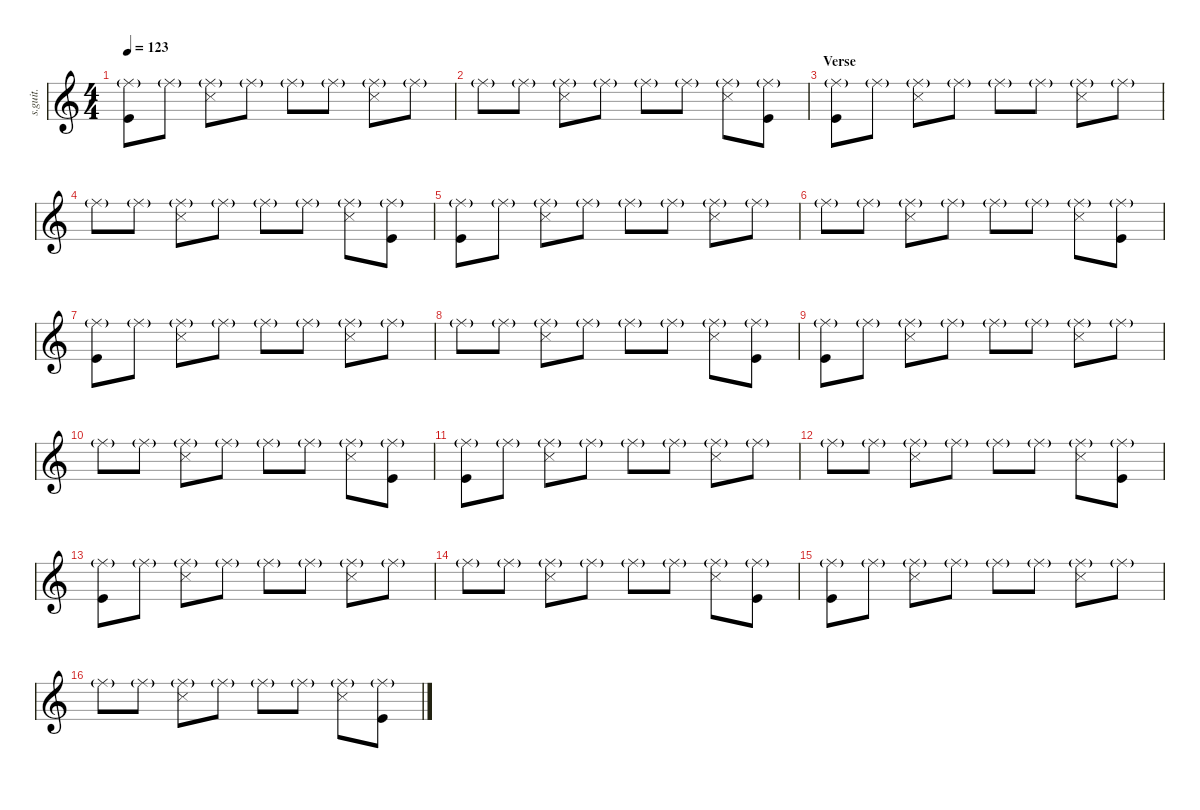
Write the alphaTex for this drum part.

\defaultSystemsLayout 4
\hideDynamics
\bracketExtendMode nobrackets
\track ("Dave Grohl" "s.guit.") {instrument percussion}
\staff {score}
\articulation defaults
\ts (4 4)
\tempo 123
\clef g2
\ks c
("Ride (middle)"{g} "Kick (hit)").8{lyrics (0 "") lyrics (1 "") lyrics (2 "") lyrics (3 "") lyrics (4 "") dy f} "Ride (middle)"{g}.8{lyrics (0 "") lyrics (1 "") lyrics (2 "") lyrics (3 "") lyrics (4 "") dy fff} ("Ride (middle)"{g} "Snare (side stick) 3").8{lyrics (0 "") lyrics (1 "") lyrics (2 "") lyrics (3 "") lyrics (4 "") dy f} "Ride (middle)"{g}.8{lyrics (0 "") lyrics (1 "") lyrics (2 "") lyrics (3 "") lyrics (4 "") dy fff} "Ride (middle)"{g}.8{lyrics (0 "") lyrics (1 "") lyrics (2 "") lyrics (3 "") lyrics (4 "")} "Ride (middle)"{g}.8{lyrics (0 "") lyrics (1 "") lyrics (2 "") lyrics (3 "") lyrics (4 "")} ("Ride (middle)"{g} "Snare (side stick) 3").8{lyrics (0 "") lyrics (1 "") lyrics (2 "") lyrics (3 "") lyrics (4 "") dy f} "Ride (middle)"{g}.8{lyrics (0 "") lyrics (1 "") lyrics (2 "") lyrics (3 "") lyrics (4 "") dy fff} |
"Ride (middle)"{g}.8{lyrics (0 "") lyrics (1 "") lyrics (2 "") lyrics (3 "") lyrics (4 "")} "Ride (middle)"{g}.8{lyrics (0 "") lyrics (1 "") lyrics (2 "") lyrics (3 "") lyrics (4 "")} ("Ride (middle)"{g} "Snare (side stick) 3").8{lyrics (0 "") lyrics (1 "") lyrics (2 "") lyrics (3 "") lyrics (4 "") dy f} "Ride (middle)"{g}.8{lyrics (0 "") lyrics (1 "") lyrics (2 "") lyrics (3 "") lyrics (4 "") dy fff} "Ride (middle)"{g}.8{lyrics (0 "") lyrics (1 "") lyrics (2 "") lyrics (3 "") lyrics (4 "")} "Ride (middle)"{g}.8{lyrics (0 "") lyrics (1 "") lyrics (2 "") lyrics (3 "") lyrics (4 "")} ("Ride (middle)"{g} "Snare (side stick) 3").8{lyrics (0 "") lyrics (1 "") lyrics (2 "") lyrics (3 "") lyrics (4 "") dy f} ("Ride (middle)"{g} "Kick (hit)").8{lyrics (0 "") lyrics (1 "") lyrics (2 "") lyrics (3 "") lyrics (4 "")} |
\section ("" "Verse")
("Ride (middle)"{g} "Kick (hit)").8{lyrics (0 "") lyrics (1 "") lyrics (2 "") lyrics (3 "") lyrics (4 "")} "Ride (middle)"{g}.8{lyrics (0 "") lyrics (1 "") lyrics (2 "") lyrics (3 "") lyrics (4 "") dy fff} ("Ride (middle)"{g} "Snare (side stick) 3").8{lyrics (0 "") lyrics (1 "") lyrics (2 "") lyrics (3 "") lyrics (4 "") dy f} "Ride (middle)"{g}.8{lyrics (0 "") lyrics (1 "") lyrics (2 "") lyrics (3 "") lyrics (4 "") dy fff} "Ride (middle)"{g}.8{lyrics (0 "") lyrics (1 "") lyrics (2 "") lyrics (3 "") lyrics (4 "")} "Ride (middle)"{g}.8{lyrics (0 "") lyrics (1 "") lyrics (2 "") lyrics (3 "") lyrics (4 "")} ("Ride (middle)"{g} "Snare (side stick) 3").8{lyrics (0 "") lyrics (1 "") lyrics (2 "") lyrics (3 "") lyrics (4 "") dy f} "Ride (middle)"{g}.8{lyrics (0 "") lyrics (1 "") lyrics (2 "") lyrics (3 "") lyrics (4 "") dy fff} |
"Ride (middle)"{g}.8{lyrics (0 "") lyrics (1 "") lyrics (2 "") lyrics (3 "") lyrics (4 "")} "Ride (middle)"{g}.8{lyrics (0 "") lyrics (1 "") lyrics (2 "") lyrics (3 "") lyrics (4 "")} ("Ride (middle)"{g} "Snare (side stick) 3").8{lyrics (0 "") lyrics (1 "") lyrics (2 "") lyrics (3 "") lyrics (4 "") dy f} "Ride (middle)"{g}.8{lyrics (0 "") lyrics (1 "") lyrics (2 "") lyrics (3 "") lyrics (4 "") dy fff} "Ride (middle)"{g}.8{lyrics (0 "") lyrics (1 "") lyrics (2 "") lyrics (3 "") lyrics (4 "")} "Ride (middle)"{g}.8{lyrics (0 "") lyrics (1 "") lyrics (2 "") lyrics (3 "") lyrics (4 "")} ("Ride (middle)"{g} "Snare (side stick) 3").8{lyrics (0 "") lyrics (1 "") lyrics (2 "") lyrics (3 "") lyrics (4 "") dy f} ("Ride (middle)"{g} "Kick (hit)").8{lyrics (0 "") lyrics (1 "") lyrics (2 "") lyrics (3 "") lyrics (4 "")} |
("Ride (middle)"{g} "Kick (hit)").8{lyrics (0 "") lyrics (1 "") lyrics (2 "") lyrics (3 "") lyrics (4 "")} "Ride (middle)"{g}.8{lyrics (0 "") lyrics (1 "") lyrics (2 "") lyrics (3 "") lyrics (4 "") dy fff} ("Ride (middle)"{g} "Snare (side stick) 3").8{lyrics (0 "") lyrics (1 "") lyrics (2 "") lyrics (3 "") lyrics (4 "") dy f} "Ride (middle)"{g}.8{lyrics (0 "") lyrics (1 "") lyrics (2 "") lyrics (3 "") lyrics (4 "") dy fff} "Ride (middle)"{g}.8{lyrics (0 "") lyrics (1 "") lyrics (2 "") lyrics (3 "") lyrics (4 "")} "Ride (middle)"{g}.8{lyrics (0 "") lyrics (1 "") lyrics (2 "") lyrics (3 "") lyrics (4 "")} ("Ride (middle)"{g} "Snare (side stick) 3").8{lyrics (0 "") lyrics (1 "") lyrics (2 "") lyrics (3 "") lyrics (4 "") dy f} "Ride (middle)"{g}.8{lyrics (0 "") lyrics (1 "") lyrics (2 "") lyrics (3 "") lyrics (4 "") dy fff} |
"Ride (middle)"{g}.8{lyrics (0 "") lyrics (1 "") lyrics (2 "") lyrics (3 "") lyrics (4 "")} "Ride (middle)"{g}.8{lyrics (0 "") lyrics (1 "") lyrics (2 "") lyrics (3 "") lyrics (4 "")} ("Ride (middle)"{g} "Snare (side stick) 3").8{lyrics (0 "") lyrics (1 "") lyrics (2 "") lyrics (3 "") lyrics (4 "") dy f} "Ride (middle)"{g}.8{lyrics (0 "") lyrics (1 "") lyrics (2 "") lyrics (3 "") lyrics (4 "") dy fff} "Ride (middle)"{g}.8{lyrics (0 "") lyrics (1 "") lyrics (2 "") lyrics (3 "") lyrics (4 "")} "Ride (middle)"{g}.8{lyrics (0 "") lyrics (1 "") lyrics (2 "") lyrics (3 "") lyrics (4 "")} ("Ride (middle)"{g} "Snare (side stick) 3").8{lyrics (0 "") lyrics (1 "") lyrics (2 "") lyrics (3 "") lyrics (4 "") dy f} ("Ride (middle)"{g} "Kick (hit)").8{lyrics (0 "") lyrics (1 "") lyrics (2 "") lyrics (3 "") lyrics (4 "")} |
("Ride (middle)"{g} "Kick (hit)").8{lyrics (0 "") lyrics (1 "") lyrics (2 "") lyrics (3 "") lyrics (4 "")} "Ride (middle)"{g}.8{lyrics (0 "") lyrics (1 "") lyrics (2 "") lyrics (3 "") lyrics (4 "") dy fff} ("Ride (middle)"{g} "Snare (side stick) 3").8{lyrics (0 "") lyrics (1 "") lyrics (2 "") lyrics (3 "") lyrics (4 "") dy f} "Ride (middle)"{g}.8{lyrics (0 "") lyrics (1 "") lyrics (2 "") lyrics (3 "") lyrics (4 "") dy fff} "Ride (middle)"{g}.8{lyrics (0 "") lyrics (1 "") lyrics (2 "") lyrics (3 "") lyrics (4 "")} "Ride (middle)"{g}.8{lyrics (0 "") lyrics (1 "") lyrics (2 "") lyrics (3 "") lyrics (4 "")} ("Ride (middle)"{g} "Snare (side stick) 3").8{lyrics (0 "") lyrics (1 "") lyrics (2 "") lyrics (3 "") lyrics (4 "") dy f} "Ride (middle)"{g}.8{lyrics (0 "") lyrics (1 "") lyrics (2 "") lyrics (3 "") lyrics (4 "") dy fff} |
"Ride (middle)"{g}.8{lyrics (0 "") lyrics (1 "") lyrics (2 "") lyrics (3 "") lyrics (4 "")} "Ride (middle)"{g}.8{lyrics (0 "") lyrics (1 "") lyrics (2 "") lyrics (3 "") lyrics (4 "")} ("Ride (middle)"{g} "Snare (side stick) 3").8{lyrics (0 "") lyrics (1 "") lyrics (2 "") lyrics (3 "") lyrics (4 "") dy f} "Ride (middle)"{g}.8{lyrics (0 "") lyrics (1 "") lyrics (2 "") lyrics (3 "") lyrics (4 "") dy fff} "Ride (middle)"{g}.8{lyrics (0 "") lyrics (1 "") lyrics (2 "") lyrics (3 "") lyrics (4 "")} "Ride (middle)"{g}.8{lyrics (0 "") lyrics (1 "") lyrics (2 "") lyrics (3 "") lyrics (4 "")} ("Ride (middle)"{g} "Snare (side stick) 3").8{lyrics (0 "") lyrics (1 "") lyrics (2 "") lyrics (3 "") lyrics (4 "") dy f} ("Ride (middle)"{g} "Kick (hit)").8{lyrics (0 "") lyrics (1 "") lyrics (2 "") lyrics (3 "") lyrics (4 "")} |
("Ride (middle)"{g} "Kick (hit)").8{lyrics (0 "") lyrics (1 "") lyrics (2 "") lyrics (3 "") lyrics (4 "")} "Ride (middle)"{g}.8{lyrics (0 "") lyrics (1 "") lyrics (2 "") lyrics (3 "") lyrics (4 "") dy fff} ("Ride (middle)"{g} "Snare (side stick) 3").8{lyrics (0 "") lyrics (1 "") lyrics (2 "") lyrics (3 "") lyrics (4 "") dy f} "Ride (middle)"{g}.8{lyrics (0 "") lyrics (1 "") lyrics (2 "") lyrics (3 "") lyrics (4 "") dy fff} "Ride (middle)"{g}.8{lyrics (0 "") lyrics (1 "") lyrics (2 "") lyrics (3 "") lyrics (4 "")} "Ride (middle)"{g}.8{lyrics (0 "") lyrics (1 "") lyrics (2 "") lyrics (3 "") lyrics (4 "")} ("Ride (middle)"{g} "Snare (side stick) 3").8{lyrics (0 "") lyrics (1 "") lyrics (2 "") lyrics (3 "") lyrics (4 "") dy f} "Ride (middle)"{g}.8{lyrics (0 "") lyrics (1 "") lyrics (2 "") lyrics (3 "") lyrics (4 "") dy fff} |
"Ride (middle)"{g}.8{lyrics (0 "") lyrics (1 "") lyrics (2 "") lyrics (3 "") lyrics (4 "")} "Ride (middle)"{g}.8{lyrics (0 "") lyrics (1 "") lyrics (2 "") lyrics (3 "") lyrics (4 "")} ("Ride (middle)"{g} "Snare (side stick) 3").8{lyrics (0 "") lyrics (1 "") lyrics (2 "") lyrics (3 "") lyrics (4 "") dy f} "Ride (middle)"{g}.8{lyrics (0 "") lyrics (1 "") lyrics (2 "") lyrics (3 "") lyrics (4 "") dy fff} "Ride (middle)"{g}.8{lyrics (0 "") lyrics (1 "") lyrics (2 "") lyrics (3 "") lyrics (4 "")} "Ride (middle)"{g}.8{lyrics (0 "") lyrics (1 "") lyrics (2 "") lyrics (3 "") lyrics (4 "")} ("Ride (middle)"{g} "Snare (side stick) 3").8{lyrics (0 "") lyrics (1 "") lyrics (2 "") lyrics (3 "") lyrics (4 "") dy f} ("Ride (middle)"{g} "Kick (hit)").8{lyrics (0 "") lyrics (1 "") lyrics (2 "") lyrics (3 "") lyrics (4 "")} |
("Ride (middle)"{g} "Kick (hit)").8{lyrics (0 "") lyrics (1 "") lyrics (2 "") lyrics (3 "") lyrics (4 "")} "Ride (middle)"{g}.8{lyrics (0 "") lyrics (1 "") lyrics (2 "") lyrics (3 "") lyrics (4 "") dy fff} ("Ride (middle)"{g} "Snare (side stick) 3").8{lyrics (0 "") lyrics (1 "") lyrics (2 "") lyrics (3 "") lyrics (4 "") dy f} "Ride (middle)"{g}.8{lyrics (0 "") lyrics (1 "") lyrics (2 "") lyrics (3 "") lyrics (4 "") dy fff} "Ride (middle)"{g}.8{lyrics (0 "") lyrics (1 "") lyrics (2 "") lyrics (3 "") lyrics (4 "")} "Ride (middle)"{g}.8{lyrics (0 "") lyrics (1 "") lyrics (2 "") lyrics (3 "") lyrics (4 "")} ("Ride (middle)"{g} "Snare (side stick) 3").8{lyrics (0 "") lyrics (1 "") lyrics (2 "") lyrics (3 "") lyrics (4 "") dy f} "Ride (middle)"{g}.8{lyrics (0 "") lyrics (1 "") lyrics (2 "") lyrics (3 "") lyrics (4 "") dy fff} |
"Ride (middle)"{g}.8{lyrics (0 "") lyrics (1 "") lyrics (2 "") lyrics (3 "") lyrics (4 "")} "Ride (middle)"{g}.8{lyrics (0 "") lyrics (1 "") lyrics (2 "") lyrics (3 "") lyrics (4 "")} ("Ride (middle)"{g} "Snare (side stick) 3").8{lyrics (0 "") lyrics (1 "") lyrics (2 "") lyrics (3 "") lyrics (4 "") dy f} "Ride (middle)"{g}.8{lyrics (0 "") lyrics (1 "") lyrics (2 "") lyrics (3 "") lyrics (4 "") dy fff} "Ride (middle)"{g}.8{lyrics (0 "") lyrics (1 "") lyrics (2 "") lyrics (3 "") lyrics (4 "")} "Ride (middle)"{g}.8{lyrics (0 "") lyrics (1 "") lyrics (2 "") lyrics (3 "") lyrics (4 "")} ("Ride (middle)"{g} "Snare (side stick) 3").8{lyrics (0 "") lyrics (1 "") lyrics (2 "") lyrics (3 "") lyrics (4 "") dy f} ("Ride (middle)"{g} "Kick (hit)").8{lyrics (0 "") lyrics (1 "") lyrics (2 "") lyrics (3 "") lyrics (4 "")} |
("Ride (middle)"{g} "Kick (hit)").8{lyrics (0 "") lyrics (1 "") lyrics (2 "") lyrics (3 "") lyrics (4 "")} "Ride (middle)"{g}.8{lyrics (0 "") lyrics (1 "") lyrics (2 "") lyrics (3 "") lyrics (4 "") dy fff} ("Ride (middle)"{g} "Snare (side stick) 3").8{lyrics (0 "") lyrics (1 "") lyrics (2 "") lyrics (3 "") lyrics (4 "") dy f} "Ride (middle)"{g}.8{lyrics (0 "") lyrics (1 "") lyrics (2 "") lyrics (3 "") lyrics (4 "") dy fff} "Ride (middle)"{g}.8{lyrics (0 "") lyrics (1 "") lyrics (2 "") lyrics (3 "") lyrics (4 "")} "Ride (middle)"{g}.8{lyrics (0 "") lyrics (1 "") lyrics (2 "") lyrics (3 "") lyrics (4 "")} ("Ride (middle)"{g} "Snare (side stick) 3").8{lyrics (0 "") lyrics (1 "") lyrics (2 "") lyrics (3 "") lyrics (4 "") dy f} "Ride (middle)"{g}.8{lyrics (0 "") lyrics (1 "") lyrics (2 "") lyrics (3 "") lyrics (4 "") dy fff} |
"Ride (middle)"{g}.8{lyrics (0 "") lyrics (1 "") lyrics (2 "") lyrics (3 "") lyrics (4 "")} "Ride (middle)"{g}.8{lyrics (0 "") lyrics (1 "") lyrics (2 "") lyrics (3 "") lyrics (4 "")} ("Ride (middle)"{g} "Snare (side stick) 3").8{lyrics (0 "") lyrics (1 "") lyrics (2 "") lyrics (3 "") lyrics (4 "") dy f} "Ride (middle)"{g}.8{lyrics (0 "") lyrics (1 "") lyrics (2 "") lyrics (3 "") lyrics (4 "") dy fff} "Ride (middle)"{g}.8{lyrics (0 "") lyrics (1 "") lyrics (2 "") lyrics (3 "") lyrics (4 "")} "Ride (middle)"{g}.8{lyrics (0 "") lyrics (1 "") lyrics (2 "") lyrics (3 "") lyrics (4 "")} ("Ride (middle)"{g} "Snare (side stick) 3").8{lyrics (0 "") lyrics (1 "") lyrics (2 "") lyrics (3 "") lyrics (4 "") dy f} ("Ride (middle)"{g} "Kick (hit)").8{lyrics (0 "") lyrics (1 "") lyrics (2 "") lyrics (3 "") lyrics (4 "")} |
("Ride (middle)"{g} "Kick (hit)").8{lyrics (0 "") lyrics (1 "") lyrics (2 "") lyrics (3 "") lyrics (4 "")} "Ride (middle)"{g}.8{lyrics (0 "") lyrics (1 "") lyrics (2 "") lyrics (3 "") lyrics (4 "") dy fff} ("Ride (middle)"{g} "Snare (side stick) 3").8{lyrics (0 "") lyrics (1 "") lyrics (2 "") lyrics (3 "") lyrics (4 "") dy f} "Ride (middle)"{g}.8{lyrics (0 "") lyrics (1 "") lyrics (2 "") lyrics (3 "") lyrics (4 "") dy fff} "Ride (middle)"{g}.8{lyrics (0 "") lyrics (1 "") lyrics (2 "") lyrics (3 "") lyrics (4 "")} "Ride (middle)"{g}.8{lyrics (0 "") lyrics (1 "") lyrics (2 "") lyrics (3 "") lyrics (4 "")} ("Ride (middle)"{g} "Snare (side stick) 3").8{lyrics (0 "") lyrics (1 "") lyrics (2 "") lyrics (3 "") lyrics (4 "") dy f} "Ride (middle)"{g}.8{lyrics (0 "") lyrics (1 "") lyrics (2 "") lyrics (3 "") lyrics (4 "") dy fff} |
"Ride (middle)"{g}.8{lyrics (0 "") lyrics (1 "") lyrics (2 "") lyrics (3 "") lyrics (4 "")} "Ride (middle)"{g}.8{lyrics (0 "") lyrics (1 "") lyrics (2 "") lyrics (3 "") lyrics (4 "")} ("Ride (middle)"{g} "Snare (side stick) 3").8{lyrics (0 "") lyrics (1 "") lyrics (2 "") lyrics (3 "") lyrics (4 "") dy f} "Ride (middle)"{g}.8{lyrics (0 "") lyrics (1 "") lyrics (2 "") lyrics (3 "") lyrics (4 "") dy fff} "Ride (middle)"{g}.8{lyrics (0 "") lyrics (1 "") lyrics (2 "") lyrics (3 "") lyrics (4 "")} "Ride (middle)"{g}.8{lyrics (0 "") lyrics (1 "") lyrics (2 "") lyrics (3 "") lyrics (4 "")} ("Ride (middle)"{g} "Snare (side stick) 3").8{lyrics (0 "") lyrics (1 "") lyrics (2 "") lyrics (3 "") lyrics (4 "") dy f} ("Ride (middle)"{g} "Kick (hit)").8{lyrics (0 "") lyrics (1 "") lyrics (2 "") lyrics (3 "") lyrics (4 "")}
